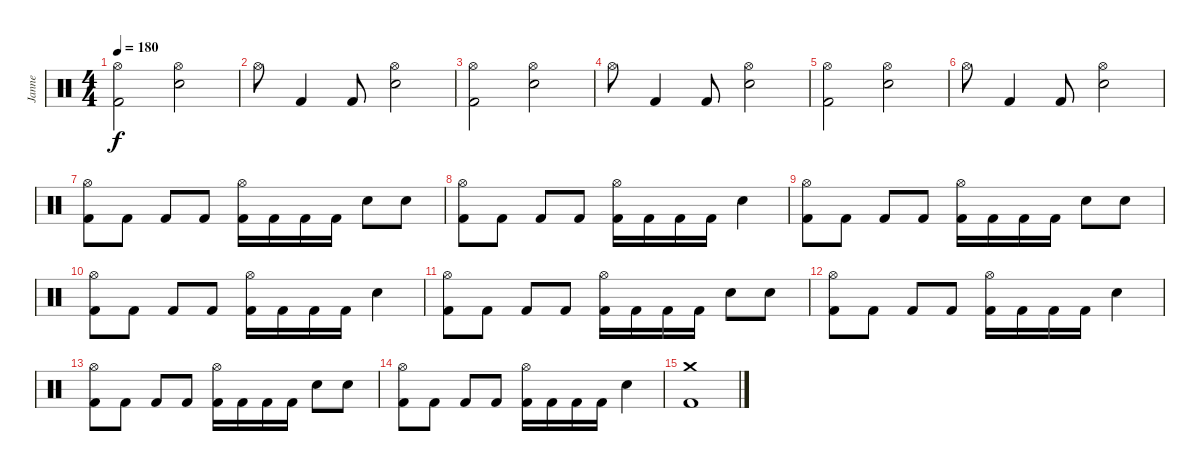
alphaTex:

\track ("Janne" "Janne") {instrument percussion}
\staff {score}
\articulation defaults
\ts (4 4)
\tempo 180
\clef neutral
\ks c
("Hi-Hat (open)" "Kick (hit) 2").2{dy f} ("Hi-Hat (open)" "Electric Snare (hit)").2 |
"Hi-Hat (open)".8 "Kick (hit) 2".4 "Kick (hit) 2".8 ("Hi-Hat (open)" "Electric Snare (hit)").2 |
("Hi-Hat (open)" "Kick (hit) 2").2 ("Hi-Hat (open)" "Electric Snare (hit)").2 |
"Hi-Hat (open)".8 "Kick (hit) 2".4 "Kick (hit) 2".8 ("Hi-Hat (open)" "Electric Snare (hit)").2 |
("Hi-Hat (open)" "Kick (hit) 2").2 ("Hi-Hat (open)" "Electric Snare (hit)").2 |
"Hi-Hat (open)".8 "Kick (hit) 2".4 "Kick (hit) 2".8 ("Hi-Hat (open)" "Electric Snare (hit)").2 |
("Hi-Hat (open)" "Kick (hit) 2").8 "Kick (hit) 2".8 "Kick (hit) 2".8 "Kick (hit) 2".8 ("Hi-Hat (open)" "Kick (hit) 2").16 "Kick (hit) 2".16 "Kick (hit) 2".16 "Kick (hit) 2".16 "Electric Snare (hit)".8 "Electric Snare (hit)".8 |
("Hi-Hat (open)" "Kick (hit) 2").8 "Kick (hit) 2".8 "Kick (hit) 2".8 "Kick (hit) 2".8 ("Hi-Hat (open)" "Kick (hit) 2").16 "Kick (hit) 2".16 "Kick (hit) 2".16 "Kick (hit) 2".16 "Electric Snare (hit)".4 |
("Hi-Hat (open)" "Kick (hit) 2").8 "Kick (hit) 2".8 "Kick (hit) 2".8 "Kick (hit) 2".8 ("Hi-Hat (open)" "Kick (hit) 2").16 "Kick (hit) 2".16 "Kick (hit) 2".16 "Kick (hit) 2".16 "Electric Snare (hit)".8 "Electric Snare (hit)".8 |
("Hi-Hat (open)" "Kick (hit) 2").8 "Kick (hit) 2".8 "Kick (hit) 2".8 "Kick (hit) 2".8 ("Hi-Hat (open)" "Kick (hit) 2").16 "Kick (hit) 2".16 "Kick (hit) 2".16 "Kick (hit) 2".16 "Electric Snare (hit)".4 |
("Hi-Hat (open)" "Kick (hit) 2").8 "Kick (hit) 2".8 "Kick (hit) 2".8 "Kick (hit) 2".8 ("Hi-Hat (open)" "Kick (hit) 2").16 "Kick (hit) 2".16 "Kick (hit) 2".16 "Kick (hit) 2".16 "Electric Snare (hit)".8 "Electric Snare (hit)".8 |
("Hi-Hat (open)" "Kick (hit) 2").8 "Kick (hit) 2".8 "Kick (hit) 2".8 "Kick (hit) 2".8 ("Hi-Hat (open)" "Kick (hit) 2").16 "Kick (hit) 2".16 "Kick (hit) 2".16 "Kick (hit) 2".16 "Electric Snare (hit)".4 |
("Hi-Hat (open)" "Kick (hit) 2").8 "Kick (hit) 2".8 "Kick (hit) 2".8 "Kick (hit) 2".8 ("Hi-Hat (open)" "Kick (hit) 2").16 "Kick (hit) 2".16 "Kick (hit) 2".16 "Kick (hit) 2".16 "Electric Snare (hit)".8 "Electric Snare (hit)".8 |
("Hi-Hat (open)" "Kick (hit) 2").8 "Kick (hit) 2".8 "Kick (hit) 2".8 "Kick (hit) 2".8 ("Hi-Hat (open)" "Kick (hit) 2").16 "Kick (hit) 2".16 "Kick (hit) 2".16 "Kick (hit) 2".16 "Electric Snare (hit)".4 |
("Crash medium (hit)" "Kick (hit) 2").1
